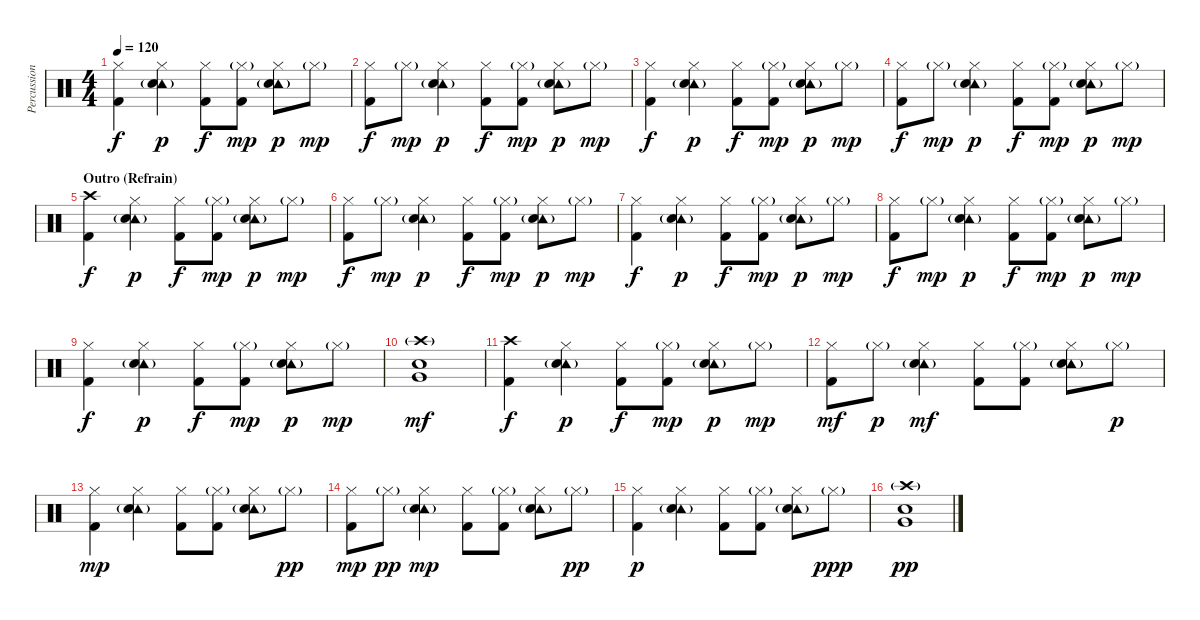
\track ("Percussion     E" "Percussion") {instrument percussion}
\staff {score}
\articulation defaults
\ts (4 4)
\tempo 120
\clef neutral
\ks c
("Hi-Hat (closed)" "Kick (hit) 2").4{dy f} ("Hi-Hat (closed)" "Tambourine (hit)"{g} "Electric Snare (hit)").4{dy p} ("Hi-Hat (closed)" "Kick (hit) 2").8{dy f} ("Hi-Hat (closed)"{g} "Kick (hit) 2").8{dy mp} ("Hi-Hat (closed)" "Tambourine (hit)"{g} "Electric Snare (hit)").8{dy p} "Hi-Hat (closed)"{g}.8{dy mp} |
("Hi-Hat (closed)" "Kick (hit) 2").8{dy f} "Hi-Hat (closed)"{g}.8{dy mp} ("Hi-Hat (closed)" "Tambourine (hit)"{g} "Electric Snare (hit)").4{dy p} ("Hi-Hat (closed)" "Kick (hit) 2").8{dy f} ("Hi-Hat (closed)"{g} "Kick (hit) 2").8{dy mp} ("Hi-Hat (closed)" "Tambourine (hit)"{g} "Electric Snare (hit)").8{dy p} "Hi-Hat (closed)"{g}.8{dy mp} |
("Hi-Hat (closed)" "Kick (hit) 2").4{dy f} ("Hi-Hat (closed)" "Tambourine (hit)"{g} "Electric Snare (hit)").4{dy p} ("Hi-Hat (closed)" "Kick (hit) 2").8{dy f} ("Hi-Hat (closed)"{g} "Kick (hit) 2").8{dy mp} ("Hi-Hat (closed)" "Tambourine (hit)"{g} "Electric Snare (hit)").8{dy p} "Hi-Hat (closed)"{g}.8{dy mp} |
("Hi-Hat (closed)" "Kick (hit) 2").8{dy f} "Hi-Hat (closed)"{g}.8{dy mp} ("Hi-Hat (closed)" "Tambourine (hit)"{g} "Electric Snare (hit)").4{dy p} ("Hi-Hat (closed)" "Kick (hit) 2").8{dy f} ("Hi-Hat (closed)"{g} "Kick (hit) 2").8{dy mp} ("Hi-Hat (closed)" "Tambourine (hit)"{g} "Electric Snare (hit)").8{dy p} "Hi-Hat (closed)"{g}.8{dy mp} |
\section ("" "Outro (Refrain)")
("Crash high (hit)" "Kick (hit) 2").4{dy f} ("Hi-Hat (closed)" "Tambourine (hit)"{g} "Electric Snare (hit)").4{dy p} ("Hi-Hat (closed)" "Kick (hit) 2").8{dy f} ("Hi-Hat (closed)"{g} "Kick (hit) 2").8{dy mp} ("Hi-Hat (closed)" "Tambourine (hit)"{g} "Electric Snare (hit)").8{dy p} "Hi-Hat (closed)"{g}.8{dy mp} |
("Hi-Hat (closed)" "Kick (hit) 2").8{dy f} "Hi-Hat (closed)"{g}.8{dy mp} ("Hi-Hat (closed)" "Tambourine (hit)"{g} "Electric Snare (hit)").4{dy p} ("Hi-Hat (closed)" "Kick (hit) 2").8{dy f} ("Hi-Hat (closed)"{g} "Kick (hit) 2").8{dy mp} ("Hi-Hat (closed)" "Tambourine (hit)"{g} "Electric Snare (hit)").8{dy p} "Hi-Hat (closed)"{g}.8{dy mp} |
("Hi-Hat (closed)" "Kick (hit) 2").4{dy f} ("Hi-Hat (closed)" "Tambourine (hit)"{g} "Electric Snare (hit)").4{dy p} ("Hi-Hat (closed)" "Kick (hit) 2").8{dy f} ("Hi-Hat (closed)"{g} "Kick (hit) 2").8{dy mp} ("Hi-Hat (closed)" "Tambourine (hit)"{g} "Electric Snare (hit)").8{dy p} "Hi-Hat (closed)"{g}.8{dy mp} |
("Hi-Hat (closed)" "Kick (hit) 2").8{dy f} "Hi-Hat (closed)"{g}.8{dy mp} ("Hi-Hat (closed)" "Tambourine (hit)"{g} "Electric Snare (hit)").4{dy p} ("Hi-Hat (closed)" "Kick (hit) 2").8{dy f} ("Hi-Hat (closed)"{g} "Kick (hit) 2").8{dy mp} ("Hi-Hat (closed)" "Tambourine (hit)"{g} "Electric Snare (hit)").8{dy p} "Hi-Hat (closed)"{g}.8{dy mp} |
("Hi-Hat (closed)" "Kick (hit) 2").4{dy f} ("Hi-Hat (closed)" "Tambourine (hit)"{g} "Electric Snare (hit)").4{dy p} ("Hi-Hat (closed)" "Kick (hit) 2").8{dy f} ("Hi-Hat (closed)"{g} "Kick (hit) 2").8{dy mp} ("Hi-Hat (closed)" "Tambourine (hit)"{g} "Electric Snare (hit)").8{dy p} "Hi-Hat (closed)"{g}.8{dy mp} |
("Crash high (hit)"{g} "Electric Snare (hit)" "Very Low Tom (hit)").1{dy mf} |
("Crash high (hit)" "Kick (hit) 2").4{dy f} ("Hi-Hat (closed)" "Tambourine (hit)"{g} "Electric Snare (hit)").4{dy p} ("Hi-Hat (closed)" "Kick (hit) 2").8{dy f} ("Hi-Hat (closed)"{g} "Kick (hit) 2").8{dy mp} ("Hi-Hat (closed)" "Tambourine (hit)"{g} "Electric Snare (hit)").8{dy p} "Hi-Hat (closed)"{g}.8{dy mp} |
("Hi-Hat (closed)" "Kick (hit) 2").8{dy mf} "Hi-Hat (closed)"{g}.8{dy p} ("Hi-Hat (closed)" "Tambourine (hit)"{g} "Electric Snare (hit)").4{dy mf} ("Hi-Hat (closed)" "Kick (hit) 2").8 ("Hi-Hat (closed)"{g} "Kick (hit) 2").8 ("Hi-Hat (closed)" "Tambourine (hit)"{g} "Electric Snare (hit)").8 "Hi-Hat (closed)"{g}.8{dy p} |
("Hi-Hat (closed)" "Kick (hit) 2").4{dy mp} ("Hi-Hat (closed)" "Tambourine (hit)"{g} "Electric Snare (hit)").4 ("Hi-Hat (closed)" "Kick (hit) 2").8 ("Hi-Hat (closed)"{g} "Kick (hit) 2").8 ("Hi-Hat (closed)" "Tambourine (hit)"{g} "Electric Snare (hit)").8 "Hi-Hat (closed)"{g}.8{dy pp} |
("Hi-Hat (closed)" "Kick (hit) 2").8{dy mp} "Hi-Hat (closed)"{g}.8{dy pp} ("Hi-Hat (closed)" "Tambourine (hit)"{g} "Electric Snare (hit)").4{dy mp} ("Hi-Hat (closed)" "Kick (hit) 2").8 ("Hi-Hat (closed)"{g} "Kick (hit) 2").8 ("Hi-Hat (closed)" "Tambourine (hit)"{g} "Electric Snare (hit)").8 "Hi-Hat (closed)"{g}.8{dy pp} |
("Hi-Hat (closed)" "Kick (hit) 2").4{dy p} ("Hi-Hat (closed)" "Tambourine (hit)"{g} "Electric Snare (hit)").4 ("Hi-Hat (closed)" "Kick (hit) 2").8 ("Hi-Hat (closed)"{g} "Kick (hit) 2").8 ("Hi-Hat (closed)" "Tambourine (hit)"{g} "Electric Snare (hit)").8 "Hi-Hat (closed)"{g}.8{dy ppp} |
("Crash high (hit)"{g} "Electric Snare (hit)" "Very Low Tom (hit)").1{dy pp}
